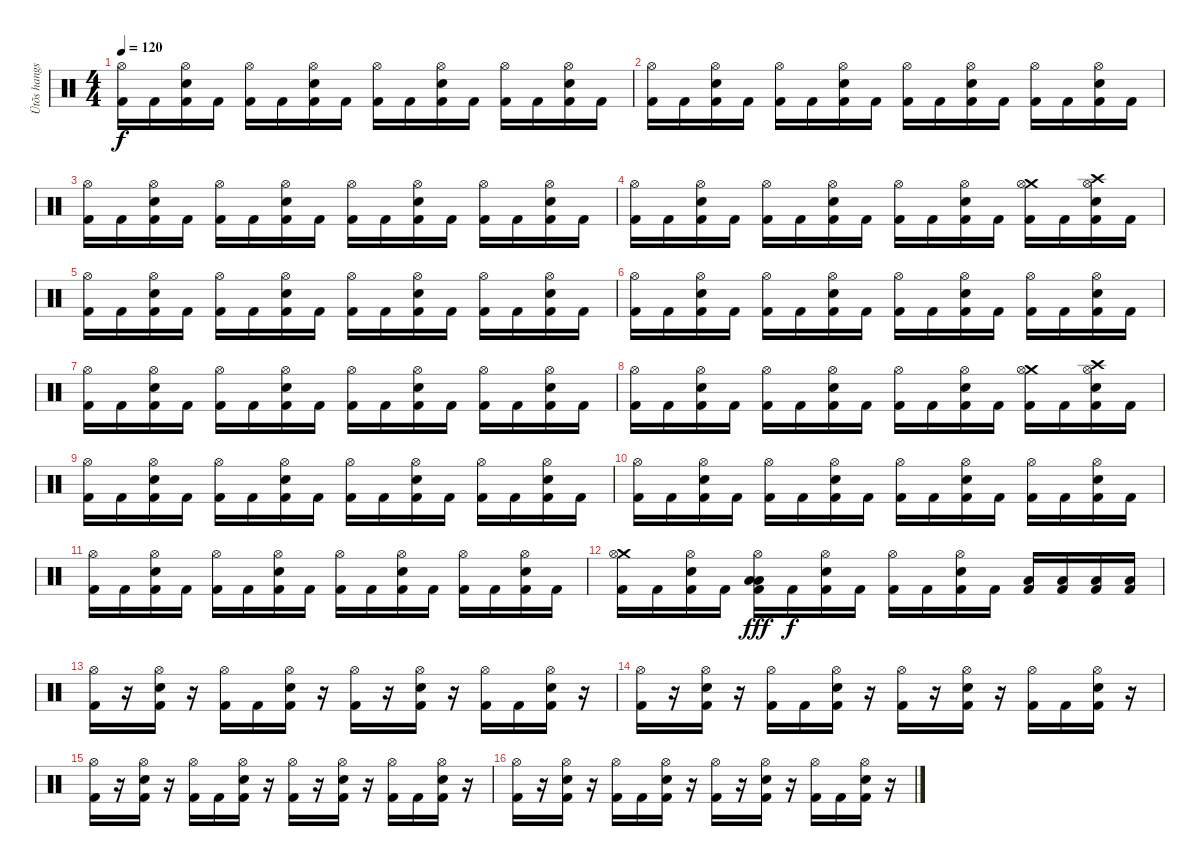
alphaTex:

\track ("Ütõs hangszer" "Ütõs hangs") {instrument percussion}
\staff {score}
\articulation defaults
\ts (4 4)
\tempo 120
\clef neutral
\ks c
("Hi-Hat (open)" "Kick (hit) 2").16{dy f} "Kick (hit) 2".16 ("Hi-Hat (open)" "Electric Snare (hit)" "Kick (hit) 2").16 "Kick (hit) 2".16 ("Hi-Hat (open)" "Kick (hit) 2").16 "Kick (hit) 2".16 ("Hi-Hat (open)" "Electric Snare (hit)" "Kick (hit) 2").16 "Kick (hit) 2".16 ("Hi-Hat (open)" "Kick (hit) 2").16 "Kick (hit) 2".16 ("Hi-Hat (open)" "Electric Snare (hit)" "Kick (hit) 2").16 "Kick (hit) 2".16 ("Hi-Hat (open)" "Kick (hit) 2").16 "Kick (hit) 2".16 ("Hi-Hat (open)" "Electric Snare (hit)" "Kick (hit) 2").16 "Kick (hit) 2".16 |
("Hi-Hat (open)" "Kick (hit) 2").16 "Kick (hit) 2".16 ("Hi-Hat (open)" "Electric Snare (hit)" "Kick (hit) 2").16 "Kick (hit) 2".16 ("Hi-Hat (open)" "Kick (hit) 2").16 "Kick (hit) 2".16 ("Hi-Hat (open)" "Electric Snare (hit)" "Kick (hit) 2").16 "Kick (hit) 2".16 ("Hi-Hat (open)" "Kick (hit) 2").16 "Kick (hit) 2".16 ("Hi-Hat (open)" "Electric Snare (hit)" "Kick (hit) 2").16 "Kick (hit) 2".16 ("Hi-Hat (open)" "Kick (hit) 2").16 "Kick (hit) 2".16 ("Hi-Hat (open)" "Electric Snare (hit)" "Kick (hit) 2").16 "Kick (hit) 2".16 |
("Hi-Hat (open)" "Kick (hit) 2").16 "Kick (hit) 2".16 ("Hi-Hat (open)" "Electric Snare (hit)" "Kick (hit) 2").16 "Kick (hit) 2".16 ("Hi-Hat (open)" "Kick (hit) 2").16 "Kick (hit) 2".16 ("Hi-Hat (open)" "Electric Snare (hit)" "Kick (hit) 2").16 "Kick (hit) 2".16 ("Hi-Hat (open)" "Kick (hit) 2").16 "Kick (hit) 2".16 ("Hi-Hat (open)" "Electric Snare (hit)" "Kick (hit) 2").16 "Kick (hit) 2".16 ("Hi-Hat (open)" "Kick (hit) 2").16 "Kick (hit) 2".16 ("Hi-Hat (open)" "Electric Snare (hit)" "Kick (hit) 2").16 "Kick (hit) 2".16 |
("Hi-Hat (open)" "Kick (hit) 2").16 "Kick (hit) 2".16 ("Hi-Hat (open)" "Electric Snare (hit)" "Kick (hit) 2").16 "Kick (hit) 2".16 ("Hi-Hat (open)" "Kick (hit) 2").16 "Kick (hit) 2".16 ("Hi-Hat (open)" "Electric Snare (hit)" "Kick (hit) 2").16 "Kick (hit) 2".16 ("Hi-Hat (open)" "Kick (hit) 2").16 "Kick (hit) 2".16 ("Hi-Hat (open)" "Electric Snare (hit)" "Kick (hit) 2").16 "Kick (hit) 2".16 ("Crash medium (hit)" "Hi-Hat (open)" "Kick (hit) 2").16 "Kick (hit) 2".16 ("Crash high (hit)" "Hi-Hat (open)" "Electric Snare (hit)" "Kick (hit) 2").16 "Kick (hit) 2".16 |
("Hi-Hat (open)" "Kick (hit) 2").16 "Kick (hit) 2".16 ("Hi-Hat (open)" "Electric Snare (hit)" "Kick (hit) 2").16 "Kick (hit) 2".16 ("Hi-Hat (open)" "Kick (hit) 2").16 "Kick (hit) 2".16 ("Hi-Hat (open)" "Electric Snare (hit)" "Kick (hit) 2").16 "Kick (hit) 2".16 ("Hi-Hat (open)" "Kick (hit) 2").16 "Kick (hit) 2".16 ("Hi-Hat (open)" "Electric Snare (hit)" "Kick (hit) 2").16 "Kick (hit) 2".16 ("Hi-Hat (open)" "Kick (hit) 2").16 "Kick (hit) 2".16 ("Hi-Hat (open)" "Electric Snare (hit)" "Kick (hit) 2").16 "Kick (hit) 2".16 |
("Hi-Hat (open)" "Kick (hit) 2").16 "Kick (hit) 2".16 ("Hi-Hat (open)" "Electric Snare (hit)" "Kick (hit) 2").16 "Kick (hit) 2".16 ("Hi-Hat (open)" "Kick (hit) 2").16 "Kick (hit) 2".16 ("Hi-Hat (open)" "Electric Snare (hit)" "Kick (hit) 2").16 "Kick (hit) 2".16 ("Hi-Hat (open)" "Kick (hit) 2").16 "Kick (hit) 2".16 ("Hi-Hat (open)" "Electric Snare (hit)" "Kick (hit) 2").16 "Kick (hit) 2".16 ("Hi-Hat (open)" "Kick (hit) 2").16 "Kick (hit) 2".16 ("Hi-Hat (open)" "Electric Snare (hit)" "Kick (hit) 2").16 "Kick (hit) 2".16 |
("Hi-Hat (open)" "Kick (hit) 2").16 "Kick (hit) 2".16 ("Hi-Hat (open)" "Electric Snare (hit)" "Kick (hit) 2").16 "Kick (hit) 2".16 ("Hi-Hat (open)" "Kick (hit) 2").16 "Kick (hit) 2".16 ("Hi-Hat (open)" "Electric Snare (hit)" "Kick (hit) 2").16 "Kick (hit) 2".16 ("Hi-Hat (open)" "Kick (hit) 2").16 "Kick (hit) 2".16 ("Hi-Hat (open)" "Electric Snare (hit)" "Kick (hit) 2").16 "Kick (hit) 2".16 ("Hi-Hat (open)" "Kick (hit) 2").16 "Kick (hit) 2".16 ("Hi-Hat (open)" "Electric Snare (hit)" "Kick (hit) 2").16 "Kick (hit) 2".16 |
("Hi-Hat (open)" "Kick (hit) 2").16 "Kick (hit) 2".16 ("Hi-Hat (open)" "Electric Snare (hit)" "Kick (hit) 2").16 "Kick (hit) 2".16 ("Hi-Hat (open)" "Kick (hit) 2").16 "Kick (hit) 2".16 ("Hi-Hat (open)" "Electric Snare (hit)" "Kick (hit) 2").16 "Kick (hit) 2".16 ("Hi-Hat (open)" "Kick (hit) 2").16 "Kick (hit) 2".16 ("Hi-Hat (open)" "Electric Snare (hit)" "Kick (hit) 2").16 "Kick (hit) 2".16 ("Crash medium (hit)" "Hi-Hat (open)" "Kick (hit) 2").16 "Kick (hit) 2".16 ("Crash high (hit)" "Hi-Hat (open)" "Electric Snare (hit)" "Kick (hit) 2").16 "Kick (hit) 2".16 |
("Hi-Hat (open)" "Kick (hit) 2").16 "Kick (hit) 2".16 ("Hi-Hat (open)" "Electric Snare (hit)" "Kick (hit) 2").16 "Kick (hit) 2".16 ("Hi-Hat (open)" "Kick (hit) 2").16 "Kick (hit) 2".16 ("Hi-Hat (open)" "Electric Snare (hit)" "Kick (hit) 2").16 "Kick (hit) 2".16 ("Hi-Hat (open)" "Kick (hit) 2").16 "Kick (hit) 2".16 ("Hi-Hat (open)" "Electric Snare (hit)" "Kick (hit) 2").16 "Kick (hit) 2".16 ("Hi-Hat (open)" "Kick (hit) 2").16 "Kick (hit) 2".16 ("Hi-Hat (open)" "Electric Snare (hit)" "Kick (hit) 2").16 "Kick (hit) 2".16 |
("Hi-Hat (open)" "Kick (hit) 2").16 "Kick (hit) 2".16 ("Hi-Hat (open)" "Electric Snare (hit)" "Kick (hit) 2").16 "Kick (hit) 2".16 ("Hi-Hat (open)" "Kick (hit) 2").16 "Kick (hit) 2".16 ("Hi-Hat (open)" "Electric Snare (hit)" "Kick (hit) 2").16 "Kick (hit) 2".16 ("Hi-Hat (open)" "Kick (hit) 2").16 "Kick (hit) 2".16 ("Hi-Hat (open)" "Electric Snare (hit)" "Kick (hit) 2").16 "Kick (hit) 2".16 ("Hi-Hat (open)" "Kick (hit) 2").16 "Kick (hit) 2".16 ("Hi-Hat (open)" "Electric Snare (hit)" "Kick (hit) 2").16 "Kick (hit) 2".16 |
("Hi-Hat (open)" "Kick (hit) 2").16 "Kick (hit) 2".16 ("Hi-Hat (open)" "Electric Snare (hit)" "Kick (hit) 2").16 "Kick (hit) 2".16 ("Hi-Hat (open)" "Kick (hit) 2").16 "Kick (hit) 2".16 ("Hi-Hat (open)" "Electric Snare (hit)" "Kick (hit) 2").16 "Kick (hit) 2".16 ("Hi-Hat (open)" "Kick (hit) 2").16 "Kick (hit) 2".16 ("Hi-Hat (open)" "Electric Snare (hit)" "Kick (hit) 2").16 "Kick (hit) 2".16 ("Hi-Hat (open)" "Kick (hit) 2").16 "Kick (hit) 2".16 ("Hi-Hat (open)" "Electric Snare (hit)" "Kick (hit) 2").16 "Kick (hit) 2".16 |
("Crash medium (hit)" "Hi-Hat (open)" "Kick (hit) 2").16 "Kick (hit) 2".16 ("Hi-Hat (open)" "Electric Snare (hit)" "Kick (hit) 2").16 "Kick (hit) 2".16 ("Low Floor Tom (hit)" "Low Floor Tom (hit)" "Hi-Hat (open)" "Kick (hit) 2").16{dy fff} "Kick (hit) 2".16{dy f} ("Hi-Hat (open)" "Electric Snare (hit)" "Kick (hit) 2").16 "Kick (hit) 2".16 ("Hi-Hat (open)" "Kick (hit) 2").16 "Kick (hit) 2".16 ("Hi-Hat (open)" "Electric Snare (hit)" "Kick (hit) 2").16 "Kick (hit) 2".16 ("Low Floor Tom (hit)" "Kick (hit) 2").16 ("Low Floor Tom (hit)" "Kick (hit) 2").16 ("Low Floor Tom (hit)" "Kick (hit) 2").16 ("Low Floor Tom (hit)" "Kick (hit) 2").16 |
("Hi-Hat (open)" "Kick (hit) 2").16 r.16 ("Hi-Hat (open)" "Electric Snare (hit)" "Kick (hit) 2").16 r.16 ("Hi-Hat (open)" "Kick (hit) 2").16 "Kick (hit) 2".16 ("Hi-Hat (open)" "Electric Snare (hit)" "Kick (hit) 2").16 r.16 ("Hi-Hat (open)" "Kick (hit) 2").16 r.16 ("Hi-Hat (open)" "Electric Snare (hit)" "Kick (hit) 2").16 r.16 ("Hi-Hat (open)" "Kick (hit) 2").16 "Kick (hit) 2".16 ("Hi-Hat (open)" "Electric Snare (hit)" "Kick (hit) 2").16 r.16 |
("Hi-Hat (open)" "Kick (hit) 2").16 r.16 ("Hi-Hat (open)" "Electric Snare (hit)" "Kick (hit) 2").16 r.16 ("Hi-Hat (open)" "Kick (hit) 2").16 "Kick (hit) 2".16 ("Hi-Hat (open)" "Electric Snare (hit)" "Kick (hit) 2").16 r.16 ("Hi-Hat (open)" "Kick (hit) 2").16 r.16 ("Hi-Hat (open)" "Electric Snare (hit)" "Kick (hit) 2").16 r.16 ("Hi-Hat (open)" "Kick (hit) 2").16 "Kick (hit) 2".16 ("Hi-Hat (open)" "Electric Snare (hit)" "Kick (hit) 2").16 r.16 |
("Hi-Hat (open)" "Kick (hit) 2").16 r.16 ("Hi-Hat (open)" "Electric Snare (hit)" "Kick (hit) 2").16 r.16 ("Hi-Hat (open)" "Kick (hit) 2").16 "Kick (hit) 2".16 ("Hi-Hat (open)" "Electric Snare (hit)" "Kick (hit) 2").16 r.16 ("Hi-Hat (open)" "Kick (hit) 2").16 r.16 ("Hi-Hat (open)" "Electric Snare (hit)" "Kick (hit) 2").16 r.16 ("Hi-Hat (open)" "Kick (hit) 2").16 "Kick (hit) 2".16 ("Hi-Hat (open)" "Electric Snare (hit)" "Kick (hit) 2").16 r.16 |
("Hi-Hat (open)" "Kick (hit) 2").16 r.16 ("Hi-Hat (open)" "Electric Snare (hit)" "Kick (hit) 2").16 r.16 ("Hi-Hat (open)" "Kick (hit) 2").16 "Kick (hit) 2".16 ("Hi-Hat (open)" "Electric Snare (hit)" "Kick (hit) 2").16 r.16 ("Hi-Hat (open)" "Kick (hit) 2").16 r.16 ("Hi-Hat (open)" "Electric Snare (hit)" "Kick (hit) 2").16 r.16 ("Hi-Hat (open)" "Kick (hit) 2").16 "Kick (hit) 2".16 ("Hi-Hat (open)" "Electric Snare (hit)" "Kick (hit) 2").16 r.16
